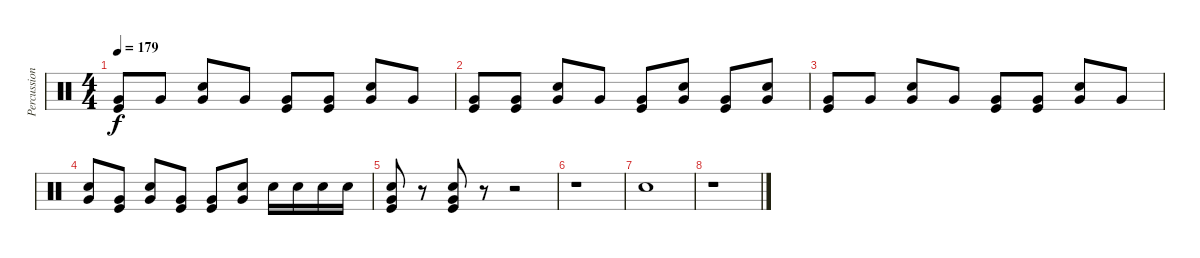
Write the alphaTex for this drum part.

\track ("Percussion" "Percussion") {instrument percussion}
\staff {score}
\articulation defaults
\ts (4 4)
\tempo 179
\clef neutral
\ks c
("Kick (hit)" "Very Low Tom (hit)").8{dy f} "Very Low Tom (hit)".8 ("Snare (hit) 2" "Very Low Tom (hit)").8 "Very Low Tom (hit)".8 ("Kick (hit)" "Very Low Tom (hit)").8 ("Kick (hit)" "Very Low Tom (hit)").8 ("Snare (hit) 2" "Very Low Tom (hit)").8 "Very Low Tom (hit)".8 |
("Kick (hit)" "Very Low Tom (hit)").8 ("Kick (hit)" "Very Low Tom (hit)").8 ("Snare (hit) 2" "Very Low Tom (hit)").8 "Very Low Tom (hit)".8 ("Kick (hit)" "Very Low Tom (hit)").8 ("Snare (hit) 2" "Very Low Tom (hit)").8 ("Kick (hit)" "Very Low Tom (hit)").8 ("Snare (hit) 2" "Very Low Tom (hit)").8 |
("Kick (hit)" "Very Low Tom (hit)").8 "Very Low Tom (hit)".8 ("Snare (hit) 2" "Very Low Tom (hit)").8 "Very Low Tom (hit)".8 ("Kick (hit)" "Very Low Tom (hit)").8 ("Kick (hit)" "Very Low Tom (hit)").8 ("Snare (hit) 2" "Very Low Tom (hit)").8 "Very Low Tom (hit)".8 |
("Snare (hit) 2" "Very Low Tom (hit)").8 ("Kick (hit)" "Very Low Tom (hit)").8 ("Snare (hit) 2" "Very Low Tom (hit)").8 ("Kick (hit)" "Very Low Tom (hit)").8 ("Kick (hit)" "Very Low Tom (hit)").8 ("Snare (hit) 2" "Very Low Tom (hit)").8 "Snare (hit) 2".16 "Snare (hit) 2".16 "Snare (hit) 2".16 "Snare (hit) 2".16 |
("Kick (hit)" "Snare (hit) 2" "Very Low Tom (hit)").8 r.8 ("Kick (hit)" "Snare (hit) 2" "Very Low Tom (hit)").8 r.8 r.2 |
r.1 |
"Snare (hit) 2".1 |
r.1
